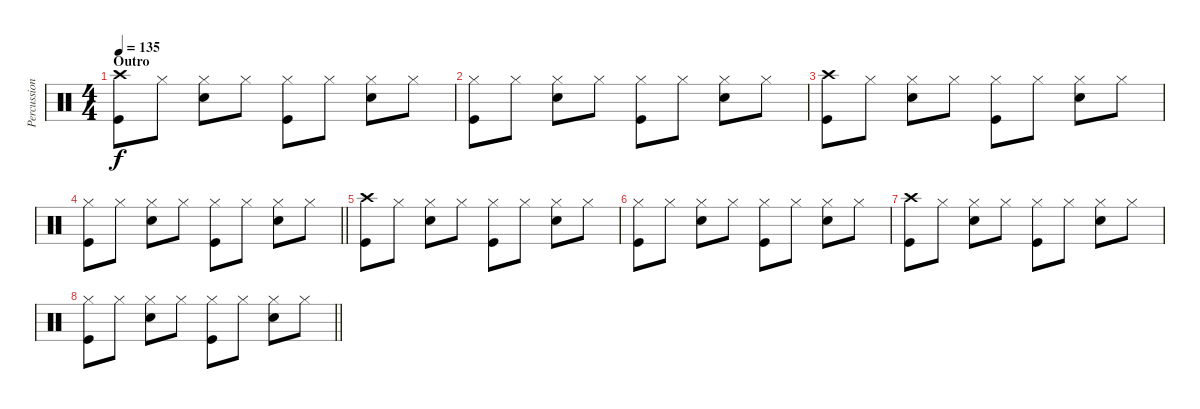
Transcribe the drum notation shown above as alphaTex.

\track ("Percussion" "Percussion") {instrument percussion}
\staff {score}
\articulation defaults
\ts (4 4)
\section ("" "Outro")
\tempo 135
\clef neutral
\ks c
("Crash high (hit)" "Kick (hit)").8{dy f} "Hi-Hat (closed)".8 ("Hi-Hat (closed)" "Electric Snare (hit)").8 "Hi-Hat (closed)".8 ("Hi-Hat (closed)" "Kick (hit)").8 "Hi-Hat (closed)".8 ("Hi-Hat (closed)" "Electric Snare (hit)").8 "Hi-Hat (closed)".8 |
("Hi-Hat (closed)" "Kick (hit)").8 "Hi-Hat (closed)".8 ("Hi-Hat (closed)" "Electric Snare (hit)").8 "Hi-Hat (closed)".8 ("Hi-Hat (closed)" "Kick (hit)").8 "Hi-Hat (closed)".8 ("Hi-Hat (closed)" "Electric Snare (hit)").8 "Hi-Hat (closed)".8 |
("Crash high (hit)" "Kick (hit)").8 "Hi-Hat (closed)".8 ("Hi-Hat (closed)" "Electric Snare (hit)").8 "Hi-Hat (closed)".8 ("Hi-Hat (closed)" "Kick (hit)").8 "Hi-Hat (closed)".8 ("Hi-Hat (closed)" "Electric Snare (hit)").8 "Hi-Hat (closed)".8 |
\barLineRight lightlight
("Hi-Hat (closed)" "Kick (hit)").8 "Hi-Hat (closed)".8 ("Hi-Hat (closed)" "Electric Snare (hit)").8 "Hi-Hat (closed)".8 ("Hi-Hat (closed)" "Kick (hit)").8 "Hi-Hat (closed)".8 ("Hi-Hat (closed)" "Electric Snare (hit)").8 "Hi-Hat (closed)".8 |
("Crash high (hit)" "Kick (hit)").8{volume 3} "Hi-Hat (closed)".8 ("Hi-Hat (closed)" "Electric Snare (hit)").8 "Hi-Hat (closed)".8 ("Hi-Hat (closed)" "Kick (hit)").8 "Hi-Hat (closed)".8 ("Hi-Hat (closed)" "Electric Snare (hit)").8 "Hi-Hat (closed)".8 |
("Hi-Hat (closed)" "Kick (hit)").8 "Hi-Hat (closed)".8 ("Hi-Hat (closed)" "Electric Snare (hit)").8 "Hi-Hat (closed)".8 ("Hi-Hat (closed)" "Kick (hit)").8 "Hi-Hat (closed)".8 ("Hi-Hat (closed)" "Electric Snare (hit)").8 "Hi-Hat (closed)".8 |
("Crash high (hit)" "Kick (hit)").8 "Hi-Hat (closed)".8 ("Hi-Hat (closed)" "Electric Snare (hit)").8 "Hi-Hat (closed)".8 ("Hi-Hat (closed)" "Kick (hit)").8 "Hi-Hat (closed)".8 ("Hi-Hat (closed)" "Electric Snare (hit)").8 "Hi-Hat (closed)".8 |
\barLineRight lightlight
("Hi-Hat (closed)" "Kick (hit)").8 "Hi-Hat (closed)".8 ("Hi-Hat (closed)" "Electric Snare (hit)").8 "Hi-Hat (closed)".8 ("Hi-Hat (closed)" "Kick (hit)").8 "Hi-Hat (closed)".8 ("Hi-Hat (closed)" "Electric Snare (hit)").8 "Hi-Hat (closed)".8
